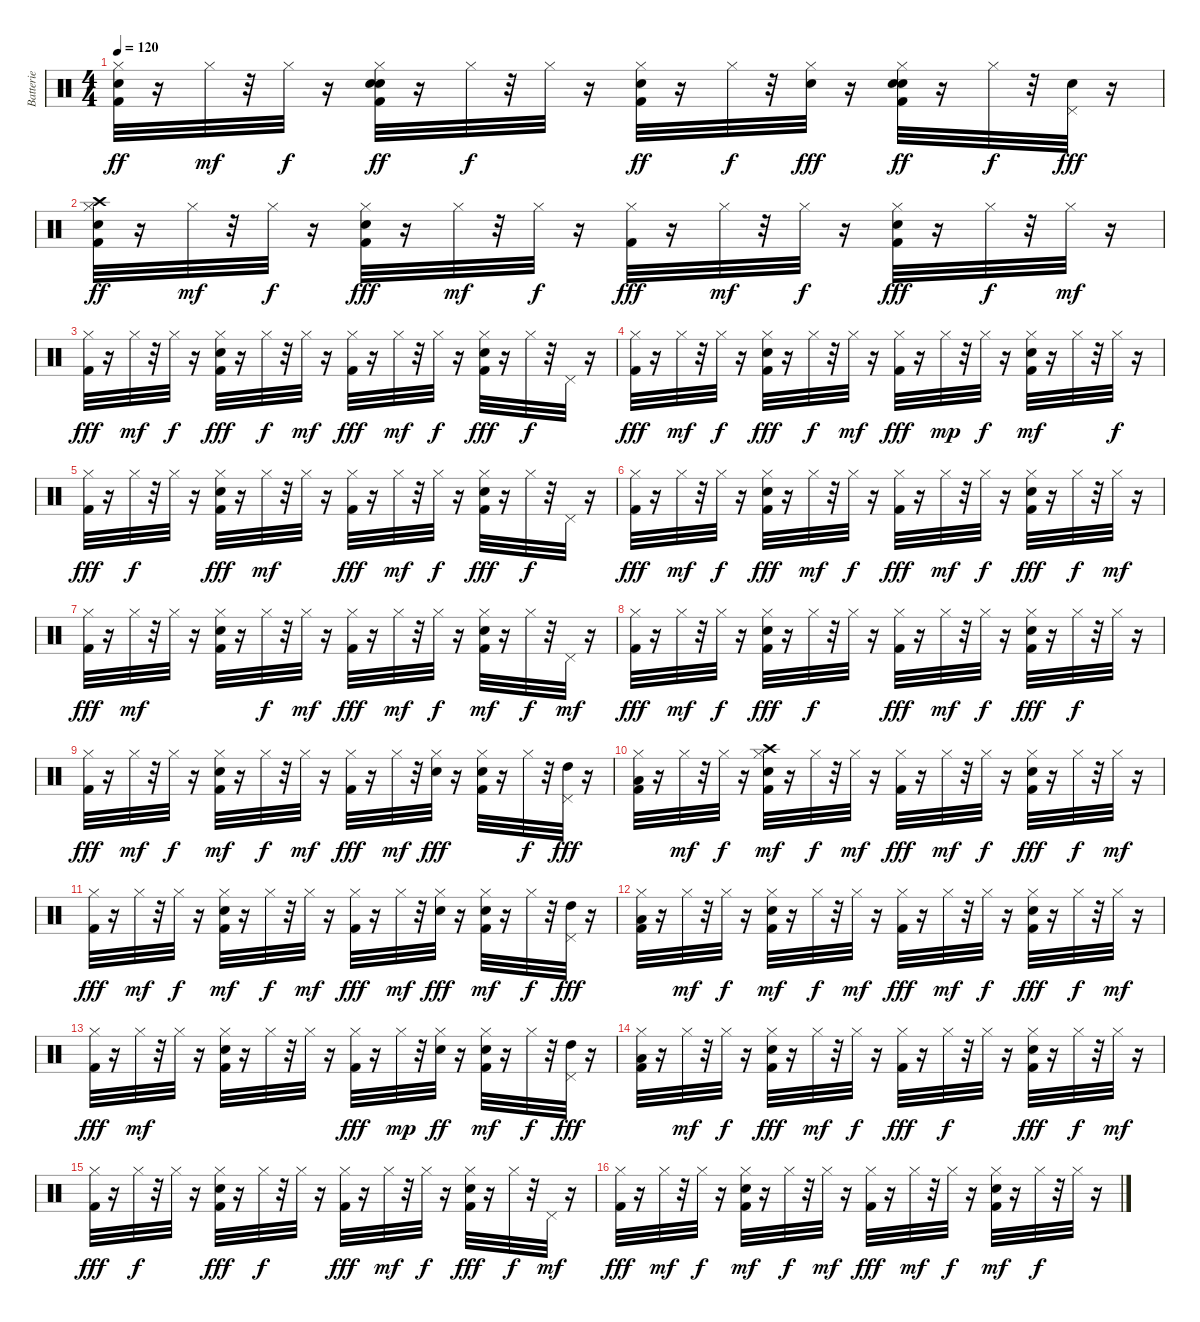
\track ("Batterie" "Batterie") {instrument percussion}
\staff {score}
\articulation defaults
\ts (4 4)
\tempo 120
\clef neutral
\ks c
("Kick (hit) 2" "Hi-Hat (closed)" "Hand Clap (hit)").32{dy ff} r.16 "Hi-Hat (closed)".32{dy mf} r.32 "Hi-Hat (closed)".32{dy f} r.16 ("Kick (hit) 2" "Snare (hit) 2" "Hi-Hat (closed)" "Hand Clap (hit)").32{dy ff} r.16 "Hi-Hat (closed)".32{dy f} r.32 "Hi-Hat (closed)".32 r.16 ("Kick (hit) 2" "Hi-Hat (closed)" "Hand Clap (hit)").32{dy ff} r.16 "Hi-Hat (closed)".32{dy f} r.32 ("Snare (hit) 2" "Hi-Hat (closed)").32{dy fff} r.16 ("Kick (hit) 2" "Snare (hit) 2" "Hi-Hat (closed)" "Hand Clap (hit)").32{dy ff} r.16 "Hi-Hat (closed)".32{dy f} r.32 ("Snare (hit) 2" "Pedal Hi-Hat (hit)").32{dy fff} r.16 |
("Kick (hit) 2" "Hi-Hat (closed)" "Hand Clap (hit)" "Crash high (hit)").32{dy ff} r.16 "Hi-Hat (closed)".32{dy mf} r.32 "Hi-Hat (closed)".32{dy f} r.16 ("Kick (hit) 2" "Snare (hit) 2" "Hi-Hat (closed)").32{dy fff} r.16 "Hi-Hat (closed)".32{dy mf} r.32 "Hi-Hat (closed)".32{dy f} r.16 ("Kick (hit) 2" "Hi-Hat (closed)").32{dy fff} r.16 "Hi-Hat (closed)".32{dy mf} r.32 "Hi-Hat (closed)".32{dy f} r.16 ("Kick (hit) 2" "Snare (hit) 2" "Hi-Hat (closed)").32{dy fff} r.16 "Hi-Hat (closed)".32{dy f} r.32 "Hi-Hat (closed)".32{dy mf} r.16 |
("Kick (hit) 2" "Hi-Hat (closed)").32{dy fff} r.16 "Hi-Hat (closed)".32{dy mf} r.32 "Hi-Hat (closed)".32{dy f} r.16 ("Kick (hit) 2" "Snare (hit) 2" "Hi-Hat (closed)").32{dy fff} r.16 "Hi-Hat (closed)".32{dy f} r.32 "Hi-Hat (closed)".32{dy mf} r.16 ("Kick (hit) 2" "Hi-Hat (closed)").32{dy fff} r.16 "Hi-Hat (closed)".32{dy mf} r.32 "Hi-Hat (closed)".32{dy f} r.16 ("Kick (hit) 2" "Snare (hit) 2" "Hi-Hat (closed)").32{dy fff} r.16 "Hi-Hat (closed)".32{dy f} r.32 "Pedal Hi-Hat (hit)".32 r.16 |
("Kick (hit) 2" "Hi-Hat (closed)").32{dy fff} r.16 "Hi-Hat (closed)".32{dy mf} r.32 "Hi-Hat (closed)".32{dy f} r.16 ("Kick (hit) 2" "Snare (hit) 2" "Hi-Hat (closed)").32{dy fff} r.16 "Hi-Hat (closed)".32{dy f} r.32 "Hi-Hat (closed)".32{dy mf} r.16 ("Kick (hit) 2" "Hi-Hat (closed)").32{dy fff} r.16 "Hi-Hat (closed)".32{dy mp} r.32 "Hi-Hat (closed)".32{dy f} r.16 ("Kick (hit) 2" "Snare (hit) 2" "Hi-Hat (closed)").32{dy mf} r.16 "Hi-Hat (closed)".32 r.32 "Hi-Hat (closed)".32{dy f} r.16 |
("Kick (hit) 2" "Hi-Hat (closed)").32{dy fff} r.16 "Hi-Hat (closed)".32{dy f} r.32 "Hi-Hat (closed)".32 r.16 ("Kick (hit) 2" "Snare (hit) 2" "Hi-Hat (closed)").32{dy fff} r.16 "Hi-Hat (closed)".32{dy mf} r.32 "Hi-Hat (closed)".32 r.16 ("Kick (hit) 2" "Hi-Hat (closed)").32{dy fff} r.16 "Hi-Hat (closed)".32{dy mf} r.32 "Hi-Hat (closed)".32{dy f} r.16 ("Kick (hit) 2" "Snare (hit) 2" "Hi-Hat (closed)").32{dy fff} r.16 "Hi-Hat (closed)".32{dy f} r.32 "Pedal Hi-Hat (hit)".32 r.16 |
("Kick (hit) 2" "Hi-Hat (closed)").32{dy fff} r.16 "Hi-Hat (closed)".32{dy mf} r.32 "Hi-Hat (closed)".32{dy f} r.16 ("Kick (hit) 2" "Snare (hit) 2" "Hi-Hat (closed)").32{dy fff} r.16 "Hi-Hat (closed)".32{dy mf} r.32 "Hi-Hat (closed)".32{dy f} r.16 ("Kick (hit) 2" "Hi-Hat (closed)").32{dy fff} r.16 "Hi-Hat (closed)".32{dy mf} r.32 "Hi-Hat (closed)".32{dy f} r.16 ("Kick (hit) 2" "Snare (hit) 2" "Hi-Hat (closed)").32{dy fff} r.16 "Hi-Hat (closed)".32{dy f} r.32 "Hi-Hat (closed)".32{dy mf} r.16 |
("Kick (hit) 2" "Hi-Hat (closed)").32{dy fff} r.16 "Hi-Hat (closed)".32{dy mf} r.32 "Hi-Hat (closed)".32 r.16 ("Kick (hit) 2" "Snare (hit) 2" "Hi-Hat (closed)").32 r.16 "Hi-Hat (closed)".32{dy f} r.32 "Hi-Hat (closed)".32{dy mf} r.16 ("Kick (hit) 2" "Hi-Hat (closed)").32{dy fff} r.16 "Hi-Hat (closed)".32{dy mf} r.32 "Hi-Hat (closed)".32{dy f} r.16 ("Kick (hit) 2" "Snare (hit) 2" "Hi-Hat (closed)").32{dy mf} r.16 "Hi-Hat (closed)".32{dy f} r.32 "Pedal Hi-Hat (hit)".32{dy mf} r.16 |
("Kick (hit) 2" "Hi-Hat (closed)").32{dy fff} r.16 "Hi-Hat (closed)".32{dy mf} r.32 "Hi-Hat (closed)".32{dy f} r.16 ("Kick (hit) 2" "Snare (hit) 2" "Hi-Hat (closed)").32{dy fff} r.16 "Hi-Hat (closed)".32{dy f} r.32 "Hi-Hat (closed)".32 r.16 ("Kick (hit) 2" "Hi-Hat (closed)").32{dy fff} r.16 "Hi-Hat (closed)".32{dy mf} r.32 "Hi-Hat (closed)".32{dy f} r.16 ("Kick (hit) 2" "Snare (hit) 2" "Hi-Hat (closed)").32{dy fff} r.16 "Hi-Hat (closed)".32{dy f} r.32 "Hi-Hat (closed)".32 r.16 |
("Kick (hit) 2" "Hi-Hat (closed)").32{dy fff} r.16 "Hi-Hat (closed)".32{dy mf} r.32 "Hi-Hat (closed)".32{dy f} r.16 ("Kick (hit) 2" "Snare (hit) 2" "Hi-Hat (closed)").32{dy mf} r.16 "Hi-Hat (closed)".32{dy f} r.32 "Hi-Hat (closed)".32{dy mf} r.16 ("Kick (hit) 2" "Hi-Hat (closed)").32{dy fff} r.16 "Hi-Hat (closed)".32{dy mf} r.32 ("Snare (hit) 2" "Hi-Hat (closed)").32{dy fff} r.16 ("Kick (hit) 2" "Snare (hit) 2" "Hi-Hat (closed)").32 r.16 "Hi-Hat (closed)".32{dy f} r.32 ("Pedal Hi-Hat (hit)" "High Tom (hit)").32{dy fff} r.16 |
("Kick (hit) 2" "Hi-Hat (closed)" "Low Floor Tom (hit)").32 r.16 "Hi-Hat (closed)".32{dy mf} r.32 "Hi-Hat (closed)".32{dy f} r.16 ("Kick (hit) 2" "Snare (hit) 2" "Hi-Hat (closed)" "Crash high (hit)").32{dy mf} r.16 "Hi-Hat (closed)".32{dy f} r.32 "Hi-Hat (closed)".32{dy mf} r.16 ("Kick (hit) 2" "Hi-Hat (closed)").32{dy fff} r.16 "Hi-Hat (closed)".32{dy mf} r.32 "Hi-Hat (closed)".32{dy f} r.16 ("Kick (hit) 2" "Snare (hit) 2" "Hi-Hat (closed)").32{dy fff} r.16 "Hi-Hat (closed)".32{dy f} r.32 "Hi-Hat (closed)".32{dy mf} r.16 |
("Kick (hit) 2" "Hi-Hat (closed)").32{dy fff} r.16 "Hi-Hat (closed)".32{dy mf} r.32 "Hi-Hat (closed)".32{dy f} r.16 ("Kick (hit) 2" "Snare (hit) 2" "Hi-Hat (closed)").32{dy mf} r.16 "Hi-Hat (closed)".32{dy f} r.32 "Hi-Hat (closed)".32{dy mf} r.16 ("Kick (hit) 2" "Hi-Hat (closed)").32{dy fff} r.16 "Hi-Hat (closed)".32{dy mf} r.32 ("Snare (hit) 2" "Hi-Hat (closed)").32{dy fff} r.16 ("Kick (hit) 2" "Snare (hit) 2" "Hi-Hat (closed)").32{dy mf} r.16 "Hi-Hat (closed)".32{dy f} r.32 ("Pedal Hi-Hat (hit)" "High Tom (hit)").32{dy fff} r.16 |
("Kick (hit) 2" "Hi-Hat (closed)" "Low Floor Tom (hit)").32 r.16 "Hi-Hat (closed)".32{dy mf} r.32 "Hi-Hat (closed)".32{dy f} r.16 ("Kick (hit) 2" "Snare (hit) 2" "Hi-Hat (closed)").32{dy mf} r.16 "Hi-Hat (closed)".32{dy f} r.32 "Hi-Hat (closed)".32{dy mf} r.16 ("Kick (hit) 2" "Hi-Hat (closed)").32{dy fff} r.16 "Hi-Hat (closed)".32{dy mf} r.32 "Hi-Hat (closed)".32{dy f} r.16 ("Kick (hit) 2" "Snare (hit) 2" "Hi-Hat (closed)").32{dy fff} r.16 "Hi-Hat (closed)".32{dy f} r.32 "Hi-Hat (closed)".32{dy mf} r.16 |
("Kick (hit) 2" "Hi-Hat (closed)").32{dy fff} r.16 "Hi-Hat (closed)".32{dy mf} r.32 "Hi-Hat (closed)".32 r.16 ("Kick (hit) 2" "Snare (hit) 2" "Hi-Hat (closed)").32 r.16 "Hi-Hat (closed)".32 r.32 "Hi-Hat (closed)".32 r.16 ("Kick (hit) 2" "Hi-Hat (closed)").32{dy fff} r.16 "Hi-Hat (closed)".32{dy mp} r.32 ("Snare (hit) 2" "Hi-Hat (closed)").32{dy ff} r.16 ("Kick (hit) 2" "Snare (hit) 2" "Hi-Hat (closed)").32{dy mf} r.16 "Hi-Hat (closed)".32{dy f} r.32 ("Pedal Hi-Hat (hit)" "High Tom (hit)").32{dy fff} r.16 |
("Kick (hit) 2" "Hi-Hat (closed)" "Low Floor Tom (hit)").32 r.16 "Hi-Hat (closed)".32{dy mf} r.32 "Hi-Hat (closed)".32{dy f} r.16 ("Kick (hit) 2" "Snare (hit) 2" "Hi-Hat (closed)").32{dy fff} r.16 "Hi-Hat (closed)".32{dy mf} r.32 "Hi-Hat (closed)".32{dy f} r.16 ("Kick (hit) 2" "Hi-Hat (closed)").32{dy fff} r.16 "Hi-Hat (closed)".32{dy f} r.32 "Hi-Hat (closed)".32 r.16 ("Kick (hit) 2" "Snare (hit) 2" "Hi-Hat (closed)").32{dy fff} r.16 "Hi-Hat (closed)".32{dy f} r.32 "Hi-Hat (closed)".32{dy mf} r.16 |
("Kick (hit) 2" "Hi-Hat (closed)").32{dy fff} r.16 "Hi-Hat (closed)".32{dy f} r.32 "Hi-Hat (closed)".32 r.16 ("Kick (hit) 2" "Snare (hit) 2" "Hi-Hat (closed)").32{dy fff} r.16 "Hi-Hat (closed)".32{dy f} r.32 "Hi-Hat (closed)".32 r.16 ("Kick (hit) 2" "Hi-Hat (closed)").32{dy fff} r.16 "Hi-Hat (closed)".32{dy mf} r.32 "Hi-Hat (closed)".32{dy f} r.16 ("Kick (hit) 2" "Snare (hit) 2" "Hi-Hat (closed)").32{dy fff} r.16 "Hi-Hat (closed)".32{dy f} r.32 "Pedal Hi-Hat (hit)".32{dy mf} r.16 |
("Kick (hit) 2" "Hi-Hat (closed)").32{dy fff} r.16 "Hi-Hat (closed)".32{dy mf} r.32 "Hi-Hat (closed)".32{dy f} r.16 ("Kick (hit) 2" "Snare (hit) 2" "Hi-Hat (closed)").32{dy mf} r.16 "Hi-Hat (closed)".32{dy f} r.32 "Hi-Hat (closed)".32{dy mf} r.16 ("Kick (hit) 2" "Hi-Hat (closed)").32{dy fff} r.16 "Hi-Hat (closed)".32{dy mf} r.32 "Hi-Hat (closed)".32{dy f} r.16 ("Kick (hit) 2" "Snare (hit) 2" "Hi-Hat (closed)").32{dy mf} r.16 "Hi-Hat (closed)".32{dy f} r.32 "Hi-Hat (closed)".32 r.16
